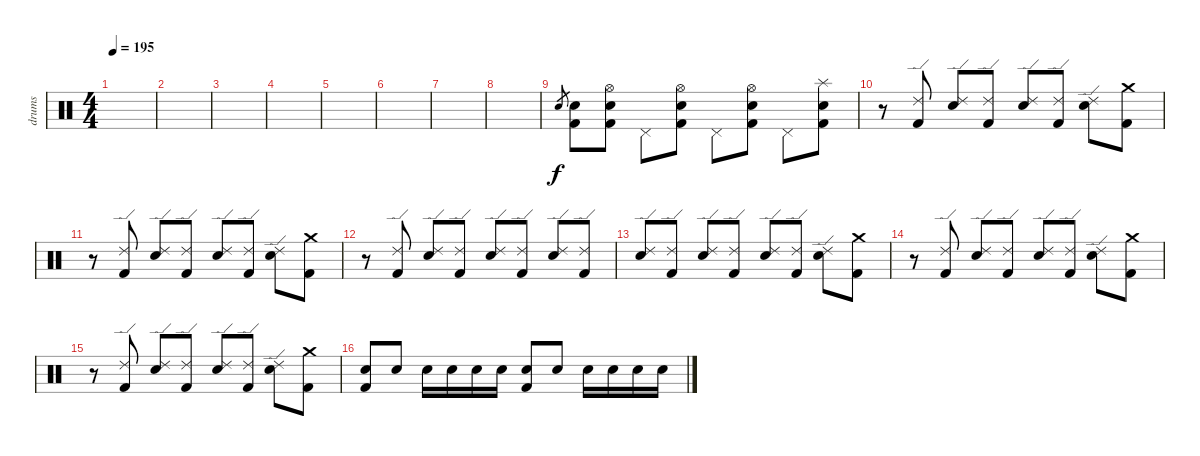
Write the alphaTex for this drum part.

\track ("drums" "drums") {instrument percussion}
\staff {score}
\articulation defaults
\ts (4 4)
\tempo 195
\clef neutral
\ks c
|
|
|
|
|
|
|
|
"Electric Snare (hit)".8{gr} ("Electric Snare (hit)" "Kick (hit) 2").8 ("Hi-Hat (open)" "Electric Snare (hit)" "Kick (hit) 2").8 "Pedal Hi-Hat (hit)".8 ("Hi-Hat (open)" "Electric Snare (hit)" "Kick (hit) 2").8 "Pedal Hi-Hat (hit)".8 ("Hi-Hat (open)" "Electric Snare (hit)" "Kick (hit) 2").8 "Pedal Hi-Hat (hit)".8 ("Splash (hit)" "Electric Snare (hit)" "Kick (hit) 2").8 |
r.8 ("Ride (edge) 2" "Kick (hit) 2").8 ("Ride (edge) 2" "Electric Snare (hit)").8 ("Ride (edge) 2" "Kick (hit) 2").8 ("Ride (edge) 2" "Electric Snare (hit)").8 ("Ride (edge) 2" "Kick (hit) 2").8 ("Ride (edge) 2" "Electric Snare (hit)").8 ("Crash medium (hit)" "Kick (hit) 2").8 |
r.8 ("Ride (edge) 2" "Kick (hit) 2").8 ("Ride (edge) 2" "Electric Snare (hit)").8 ("Ride (edge) 2" "Kick (hit) 2").8 ("Ride (edge) 2" "Electric Snare (hit)").8 ("Ride (edge) 2" "Kick (hit) 2").8 ("Ride (edge) 2" "Electric Snare (hit)").8 ("Crash medium (hit)" "Kick (hit) 2").8 |
r.8 ("Ride (edge) 2" "Kick (hit) 2").8 ("Ride (edge) 2" "Electric Snare (hit)").8 ("Ride (edge) 2" "Kick (hit) 2").8 ("Ride (edge) 2" "Electric Snare (hit)").8 ("Ride (edge) 2" "Kick (hit) 2").8 ("Ride (edge) 2" "Electric Snare (hit)").8 ("Ride (edge) 2" "Kick (hit) 2").8 |
("Ride (edge) 2" "Electric Snare (hit)").8 ("Ride (edge) 2" "Kick (hit) 2").8 ("Ride (edge) 2" "Electric Snare (hit)").8 ("Ride (edge) 2" "Kick (hit) 2").8 ("Ride (edge) 2" "Electric Snare (hit)").8 ("Ride (edge) 2" "Kick (hit) 2").8 ("Ride (edge) 2" "Electric Snare (hit)").8 ("Crash medium (hit)" "Kick (hit) 2").8 |
r.8 ("Ride (edge) 2" "Kick (hit) 2").8 ("Ride (edge) 2" "Electric Snare (hit)").8 ("Ride (edge) 2" "Kick (hit) 2").8 ("Ride (edge) 2" "Electric Snare (hit)").8 ("Ride (edge) 2" "Kick (hit) 2").8 ("Ride (edge) 2" "Electric Snare (hit)").8 ("Crash medium (hit)" "Kick (hit) 2").8 |
r.8 ("Ride (edge) 2" "Kick (hit) 2").8 ("Ride (edge) 2" "Electric Snare (hit)").8 ("Ride (edge) 2" "Kick (hit) 2").8 ("Ride (edge) 2" "Electric Snare (hit)").8 ("Ride (edge) 2" "Kick (hit) 2").8 ("Ride (edge) 2" "Electric Snare (hit)").8 ("Crash medium (hit)" "Kick (hit) 2").8 |
("Electric Snare (hit)" "Kick (hit) 2").8 "Electric Snare (hit)".8 "Electric Snare (hit)".16 "Electric Snare (hit)".16 "Electric Snare (hit)".16 "Electric Snare (hit)".16 ("Electric Snare (hit)" "Kick (hit) 2").8 "Electric Snare (hit)".8 "Electric Snare (hit)".16 "Electric Snare (hit)".16 "Electric Snare (hit)".16 "Electric Snare (hit)".16
